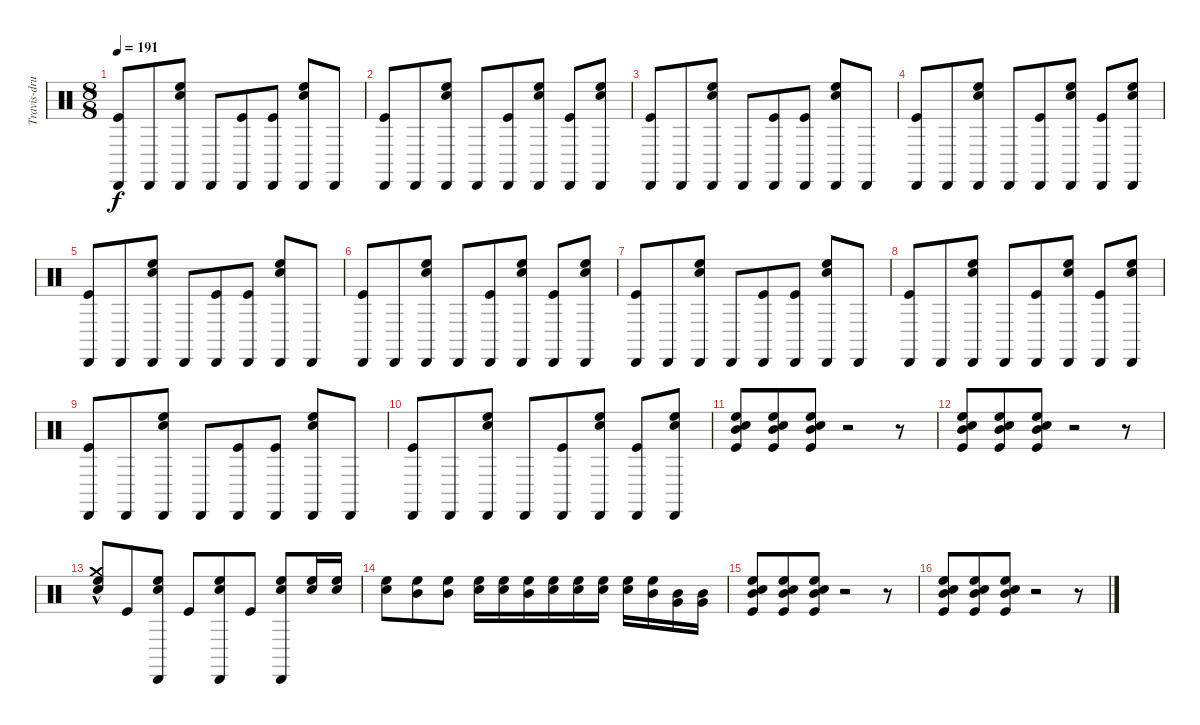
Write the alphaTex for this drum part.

\track ("Travis-drums" "Travis-dru") {instrument percussion}
\staff {score}
\articulation defaults
\ts (8 8)
\tempo 191
\clef neutral
\ks c
("Cabasa (hit)" "Kick (hit)").8{dy f} "Cabasa (hit)".8 ("High Floor Tom (hit)" "Electric Snare (hit)" "Cabasa (hit)").8 "Cabasa (hit)".8 ("Cabasa (hit)" "Kick (hit)").8 ("Kick (hit)" "Cabasa (hit)").8 ("High Floor Tom (hit)" "Electric Snare (hit)" "Cabasa (hit)").8 "Cabasa (hit)".8 |
("Cabasa (hit)" "Kick (hit)").8 "Cabasa (hit)".8 ("High Floor Tom (hit)" "Electric Snare (hit)" "Cabasa (hit)").8 "Cabasa (hit)".8 ("Kick (hit)" "Cabasa (hit)").8 ("High Floor Tom (hit)" "Electric Snare (hit)" "Cabasa (hit)").8 ("Kick (hit)" "Cabasa (hit)").8 ("High Floor Tom (hit)" "Electric Snare (hit)" "Cabasa (hit)").8 |
("Cabasa (hit)" "Kick (hit)").8 "Cabasa (hit)".8 ("High Floor Tom (hit)" "Electric Snare (hit)" "Cabasa (hit)").8 "Cabasa (hit)".8 ("Cabasa (hit)" "Kick (hit)").8 ("Kick (hit)" "Cabasa (hit)").8 ("High Floor Tom (hit)" "Electric Snare (hit)" "Cabasa (hit)").8 "Cabasa (hit)".8 |
("Cabasa (hit)" "Kick (hit)").8 "Cabasa (hit)".8 ("High Floor Tom (hit)" "Electric Snare (hit)" "Cabasa (hit)").8 "Cabasa (hit)".8 ("Kick (hit)" "Cabasa (hit)").8 ("High Floor Tom (hit)" "Electric Snare (hit)" "Cabasa (hit)").8 ("Kick (hit)" "Cabasa (hit)").8 ("High Floor Tom (hit)" "Electric Snare (hit)" "Cabasa (hit)").8 |
("Cabasa (hit)" "Kick (hit)").8 "Cabasa (hit)".8 ("High Floor Tom (hit)" "Electric Snare (hit)" "Cabasa (hit)").8 "Cabasa (hit)".8 ("Cabasa (hit)" "Kick (hit)").8 ("Kick (hit)" "Cabasa (hit)").8 ("High Floor Tom (hit)" "Electric Snare (hit)" "Cabasa (hit)").8 "Cabasa (hit)".8 |
("Cabasa (hit)" "Kick (hit)").8 "Cabasa (hit)".8 ("High Floor Tom (hit)" "Electric Snare (hit)" "Cabasa (hit)").8 "Cabasa (hit)".8 ("Kick (hit)" "Cabasa (hit)").8 ("High Floor Tom (hit)" "Electric Snare (hit)" "Cabasa (hit)").8 ("Kick (hit)" "Cabasa (hit)").8 ("High Floor Tom (hit)" "Electric Snare (hit)" "Cabasa (hit)").8 |
("Cabasa (hit)" "Kick (hit)").8 "Cabasa (hit)".8 ("High Floor Tom (hit)" "Electric Snare (hit)" "Cabasa (hit)").8 "Cabasa (hit)".8 ("Cabasa (hit)" "Kick (hit)").8 ("Kick (hit)" "Cabasa (hit)").8 ("High Floor Tom (hit)" "Electric Snare (hit)" "Cabasa (hit)").8 "Cabasa (hit)".8 |
("Cabasa (hit)" "Kick (hit)").8 "Cabasa (hit)".8 ("High Floor Tom (hit)" "Electric Snare (hit)" "Cabasa (hit)").8 "Cabasa (hit)".8 ("Kick (hit)" "Cabasa (hit)").8 ("High Floor Tom (hit)" "Electric Snare (hit)" "Cabasa (hit)").8 ("Kick (hit)" "Cabasa (hit)").8 ("High Floor Tom (hit)" "Electric Snare (hit)" "Cabasa (hit)").8 |
("Cabasa (hit)" "Kick (hit)").8 "Cabasa (hit)".8 ("High Floor Tom (hit)" "Electric Snare (hit)" "Cabasa (hit)").8 "Cabasa (hit)".8 ("Cabasa (hit)" "Kick (hit)").8 ("Kick (hit)" "Cabasa (hit)").8 ("High Floor Tom (hit)" "Electric Snare (hit)" "Cabasa (hit)").8 "Cabasa (hit)".8 |
("Cabasa (hit)" "Kick (hit)").8 "Cabasa (hit)".8 ("High Floor Tom (hit)" "Electric Snare (hit)" "Cabasa (hit)").8 "Cabasa (hit)".8 ("Kick (hit)" "Cabasa (hit)").8 ("High Floor Tom (hit)" "Electric Snare (hit)" "Cabasa (hit)").8 ("Kick (hit)" "Cabasa (hit)").8 ("High Floor Tom (hit)" "Electric Snare (hit)" "Cabasa (hit)").8 |
("Kick (hit)" "Mid Tom (hit)" "High Floor Tom (hit)" "Electric Snare (hit)").8 ("Kick (hit)" "Mid Tom (hit)" "High Floor Tom (hit)" "Electric Snare (hit)").8 ("Kick (hit)" "High Floor Tom (hit)" "Mid Tom (hit)" "Electric Snare (hit)").8 r.2 r.8 |
("Kick (hit)" "Mid Tom (hit)" "High Floor Tom (hit)" "Electric Snare (hit)").8 ("Kick (hit)" "Mid Tom (hit)" "High Floor Tom (hit)" "Electric Snare (hit)").8 ("Kick (hit)" "High Floor Tom (hit)" "Mid Tom (hit)" "Electric Snare (hit)").8 r.2 r.8 |
("High Floor Tom (hit)" "Crash medium (hit)"{hac} "Electric Snare (hit)").8 "Kick (hit)".8 ("High Floor Tom (hit)" "Cabasa (hit)" "Electric Snare (hit)").8 "Kick (hit)".8 ("High Floor Tom (hit)" "Cabasa (hit)" "Electric Snare (hit)").8 "Kick (hit)".8 ("High Floor Tom (hit)" "Cabasa (hit)" "Electric Snare (hit)").8 ("High Floor Tom (hit)" "Electric Snare (hit)").16 ("High Floor Tom (hit)" "Electric Snare (hit)").16 |
("High Floor Tom (hit)" "Electric Snare (hit)").8 ("Mid Tom (hit)" "High Floor Tom (hit)").8 ("Mid Tom (hit)" "High Floor Tom (hit)").8 ("High Floor Tom (hit)" "Electric Snare (hit)").16 ("High Floor Tom (hit)" "Electric Snare (hit)").16 ("Mid Tom (hit)" "High Floor Tom (hit)").16 ("Electric Snare (hit)" "High Floor Tom (hit)").16 ("High Floor Tom (hit)" "Electric Snare (hit)").16 ("High Floor Tom (hit)" "Electric Snare (hit)").16 ("Electric Snare (hit)" "High Floor Tom (hit)").16 ("Mid Tom (hit)" "High Floor Tom (hit)").16 ("Very Low Tom (hit)" "Mid Tom (hit)").16 ("Very Low Tom (hit)" "Mid Tom (hit)").16 |
("Kick (hit)" "Mid Tom (hit)" "High Floor Tom (hit)" "Electric Snare (hit)").8 ("Kick (hit)" "Mid Tom (hit)" "High Floor Tom (hit)" "Electric Snare (hit)").8 ("Kick (hit)" "High Floor Tom (hit)" "Mid Tom (hit)" "Electric Snare (hit)").8 r.2 r.8 |
("Kick (hit)" "Mid Tom (hit)" "High Floor Tom (hit)" "Electric Snare (hit)").8 ("Kick (hit)" "Mid Tom (hit)" "High Floor Tom (hit)" "Electric Snare (hit)").8 ("Kick (hit)" "High Floor Tom (hit)" "Mid Tom (hit)" "Electric Snare (hit)").8 r.2 r.8
